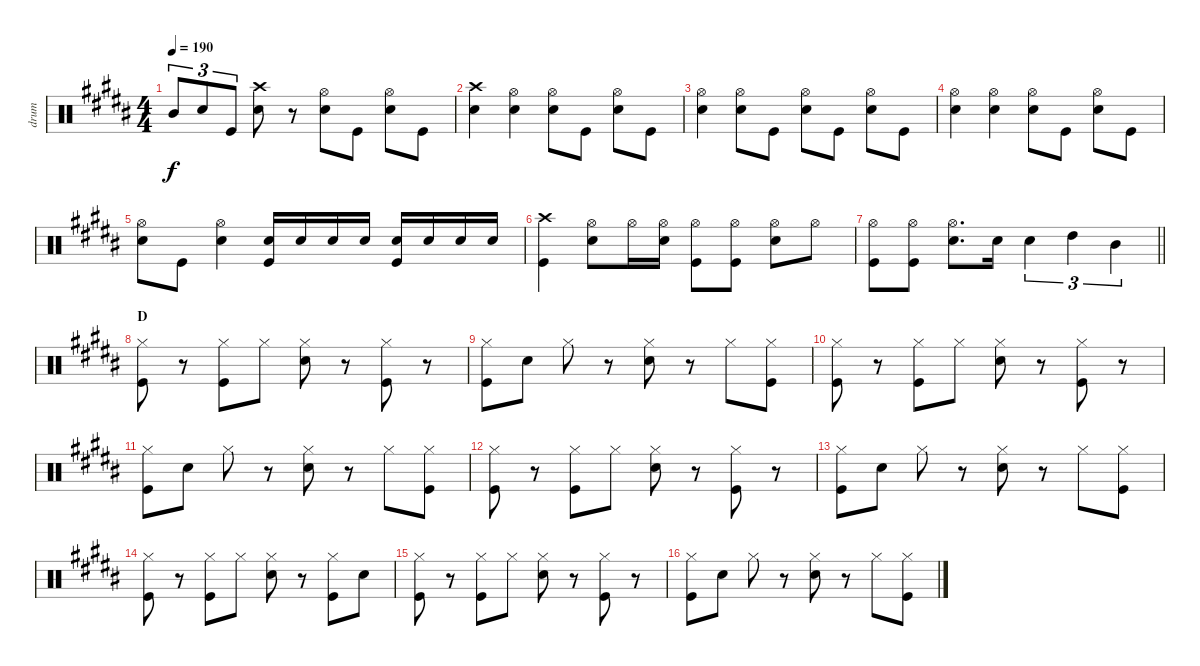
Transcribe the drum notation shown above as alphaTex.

\track ("drum" "drum") {instrument percussion}
\staff {score}
\articulation defaults
\ts (4 4)
\tempo 190
\clef neutral
\ks b "Mid Tom (hit)".8{tu (3 2) dy f} "Snare (hit) 2".8{tu (3 2)} "Kick (hit)".8{tu (3 2)}
("Crash high (hit)" "Snare (hit) 2").8 r.8 ("Hi-Hat (open)" "Snare (hit) 2").8 "Kick (hit)".8 ("Hi-Hat (open)" "Snare (hit) 2").8 "Kick (hit)".8 |
("Crash high (hit)" "Snare (hit) 2").4 ("Hi-Hat (open)" "Snare (hit) 2").4 ("Hi-Hat (open)" "Snare (hit) 2").8 "Kick (hit)".8 ("Hi-Hat (open)" "Snare (hit) 2").8 "Kick (hit)".8 |
("Hi-Hat (open)" "Snare (hit) 2").4 ("Hi-Hat (open)" "Snare (hit) 2").8 "Kick (hit)".8 ("Hi-Hat (open)" "Snare (hit) 2").8 "Kick (hit)".8 ("Hi-Hat (open)" "Snare (hit) 2").8 "Kick (hit)".8 |
("Hi-Hat (open)" "Snare (hit) 2").4 ("Hi-Hat (open)" "Snare (hit) 2").4 ("Hi-Hat (open)" "Snare (hit) 2").8 "Kick (hit)".8 ("Hi-Hat (open)" "Snare (hit) 2").8 "Kick (hit)".8 |
("Hi-Hat (open)" "Snare (hit) 2").8 "Kick (hit)".8 ("Hi-Hat (open)" "Snare (hit) 2").4 ("Snare (hit) 2" "Kick (hit)").16 "Snare (hit) 2".16 "Snare (hit) 2".16 "Snare (hit) 2".16 ("Snare (hit) 2" "Kick (hit)").16 "Snare (hit) 2".16 "Snare (hit) 2".16 "Snare (hit) 2".16 |
("Crash high (hit)" "Kick (hit)").4 ("Hi-Hat (open)" "Snare (hit) 2").8 "Hi-Hat (open)".16 ("Hi-Hat (open)" "Snare (hit) 2").16 ("Hi-Hat (open)" "Kick (hit)").8 ("Hi-Hat (open)" "Kick (hit)").8 ("Hi-Hat (open)" "Snare (hit) 2").8 "Hi-Hat (open)".8 |
\barLineRight lightlight
("Hi-Hat (open)" "Kick (hit)").8 ("Hi-Hat (open)" "Kick (hit)").8 ("Hi-Hat (open)" "Snare (hit) 2").8{d} "Snare (hit) 2".16 "Snare (hit) 2".4{tu (3 2)} "High Tom (hit)".4{tu (3 2)} "Mid Tom (hit)".4{tu (3 2)} |
\section ("" "D")
("Hi-Hat (closed)" "Kick (hit)").8 r.8 ("Hi-Hat (closed)" "Kick (hit)").8 "Hi-Hat (closed)".8 ("Hi-Hat (closed)" "Snare (hit) 2").8 r.8 ("Hi-Hat (closed)" "Kick (hit)").8 r.8 |
("Hi-Hat (closed)" "Kick (hit)").8 "Snare (hit) 2".8 "Hi-Hat (closed)".8 r.8 ("Hi-Hat (closed)" "Snare (hit) 2").8 r.8 "Hi-Hat (closed)".8 ("Hi-Hat (closed)" "Kick (hit)").8 |
("Hi-Hat (closed)" "Kick (hit)").8 r.8 ("Hi-Hat (closed)" "Kick (hit)").8 "Hi-Hat (closed)".8 ("Hi-Hat (closed)" "Snare (hit) 2").8 r.8 ("Hi-Hat (closed)" "Kick (hit)").8 r.8 |
("Hi-Hat (closed)" "Kick (hit)").8 "Snare (hit) 2".8 "Hi-Hat (closed)".8 r.8 ("Hi-Hat (closed)" "Snare (hit) 2").8 r.8 "Hi-Hat (closed)".8 ("Hi-Hat (closed)" "Kick (hit)").8 |
("Hi-Hat (closed)" "Kick (hit)").8 r.8 ("Hi-Hat (closed)" "Kick (hit)").8 "Hi-Hat (closed)".8 ("Hi-Hat (closed)" "Snare (hit) 2").8 r.8 ("Hi-Hat (closed)" "Kick (hit)").8 r.8 |
("Hi-Hat (closed)" "Kick (hit)").8 "Snare (hit) 2".8 "Hi-Hat (closed)".8 r.8 ("Hi-Hat (closed)" "Snare (hit) 2").8 r.8 "Hi-Hat (closed)".8 ("Hi-Hat (closed)" "Kick (hit)").8 |
("Hi-Hat (closed)" "Kick (hit)").8 r.8 ("Hi-Hat (closed)" "Kick (hit)").8 "Hi-Hat (closed)".8 ("Hi-Hat (closed)" "Snare (hit) 2").8 r.8 ("Hi-Hat (closed)" "Kick (hit)").8 "Snare (hit) 2".8 |
("Hi-Hat (closed)" "Kick (hit)").8 r.8 ("Hi-Hat (closed)" "Kick (hit)").8 "Hi-Hat (closed)".8 ("Hi-Hat (closed)" "Snare (hit) 2").8 r.8 ("Hi-Hat (closed)" "Kick (hit)").8 r.8 |
("Hi-Hat (closed)" "Kick (hit)").8 "Snare (hit) 2".8 "Hi-Hat (closed)".8 r.8 ("Hi-Hat (closed)" "Snare (hit) 2").8 r.8 "Hi-Hat (closed)".8 ("Hi-Hat (closed)" "Kick (hit)").8
